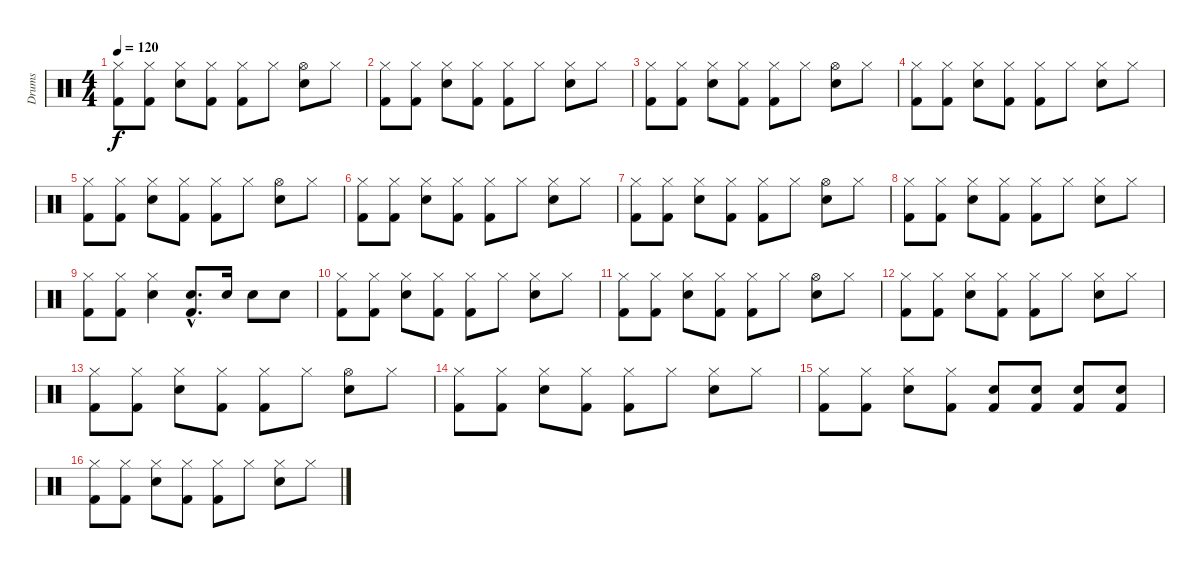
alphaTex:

\track ("Drums " "Drums ") {instrument percussion}
\staff {score}
\articulation defaults
\ts (4 4)
\tempo 120
\clef neutral
\ks c
("Kick (hit) 2" "Hi-Hat (closed)").8{dy f} ("Kick (hit) 2" "Hi-Hat (closed)").8 ("Electric Snare (hit)" "Hi-Hat (closed)").8 ("Kick (hit) 2" "Hi-Hat (closed)").8 ("Kick (hit) 2" "Hi-Hat (closed)").8 "Hi-Hat (closed)".8 ("Electric Snare (hit)" "Hi-Hat (open)").8 "Hi-Hat (closed)".8 |
("Kick (hit) 2" "Hi-Hat (closed)").8 ("Kick (hit) 2" "Hi-Hat (closed)").8 ("Electric Snare (hit)" "Hi-Hat (closed)").8 ("Kick (hit) 2" "Hi-Hat (closed)").8 ("Kick (hit) 2" "Hi-Hat (closed)").8 "Hi-Hat (closed)".8 ("Electric Snare (hit)" "Hi-Hat (closed)").8 "Hi-Hat (closed)".8 |
("Kick (hit) 2" "Hi-Hat (closed)").8 ("Kick (hit) 2" "Hi-Hat (closed)").8 ("Electric Snare (hit)" "Hi-Hat (closed)").8 ("Kick (hit) 2" "Hi-Hat (closed)").8 ("Kick (hit) 2" "Hi-Hat (closed)").8 "Hi-Hat (closed)".8 ("Electric Snare (hit)" "Hi-Hat (open)").8 "Hi-Hat (closed)".8 |
("Kick (hit) 2" "Hi-Hat (closed)").8 ("Kick (hit) 2" "Hi-Hat (closed)").8 ("Electric Snare (hit)" "Hi-Hat (closed)").8 ("Kick (hit) 2" "Hi-Hat (closed)").8 ("Kick (hit) 2" "Hi-Hat (closed)").8 "Hi-Hat (closed)".8 ("Electric Snare (hit)" "Hi-Hat (closed)").8 "Hi-Hat (closed)".8 |
("Kick (hit) 2" "Hi-Hat (closed)").8 ("Kick (hit) 2" "Hi-Hat (closed)").8 ("Electric Snare (hit)" "Hi-Hat (closed)").8 ("Kick (hit) 2" "Hi-Hat (closed)").8 ("Kick (hit) 2" "Hi-Hat (closed)").8 "Hi-Hat (closed)".8 ("Electric Snare (hit)" "Hi-Hat (open)").8 "Hi-Hat (closed)".8 |
("Kick (hit) 2" "Hi-Hat (closed)").8 ("Kick (hit) 2" "Hi-Hat (closed)").8 ("Electric Snare (hit)" "Hi-Hat (closed)").8 ("Kick (hit) 2" "Hi-Hat (closed)").8 ("Kick (hit) 2" "Hi-Hat (closed)").8 "Hi-Hat (closed)".8 ("Electric Snare (hit)" "Hi-Hat (closed)").8 "Hi-Hat (closed)".8 |
("Kick (hit) 2" "Hi-Hat (closed)").8 ("Kick (hit) 2" "Hi-Hat (closed)").8 ("Electric Snare (hit)" "Hi-Hat (closed)").8 ("Kick (hit) 2" "Hi-Hat (closed)").8 ("Kick (hit) 2" "Hi-Hat (closed)").8 "Hi-Hat (closed)".8 ("Electric Snare (hit)" "Hi-Hat (open)").8 "Hi-Hat (closed)".8 |
("Kick (hit) 2" "Hi-Hat (closed)").8 ("Kick (hit) 2" "Hi-Hat (closed)").8 ("Electric Snare (hit)" "Hi-Hat (closed)").8 ("Kick (hit) 2" "Hi-Hat (closed)").8 ("Kick (hit) 2" "Hi-Hat (closed)").8 "Hi-Hat (closed)".8 ("Electric Snare (hit)" "Hi-Hat (closed)").8 "Hi-Hat (closed)".8 |
("Hi-Hat (closed)" "Kick (hit) 2").8 ("Kick (hit) 2" "Hi-Hat (closed)").8 ("Electric Snare (hit)" "Hi-Hat (closed)").4 ("Kick (hit) 2"{hac} "Electric Snare (hit)"{hac}).8{d} "Electric Snare (hit)".16 "Electric Snare (hit)".8 "Electric Snare (hit)".8 |
("Kick (hit) 2" "Hi-Hat (closed)").8 ("Kick (hit) 2" "Hi-Hat (closed)").8 ("Electric Snare (hit)" "Hi-Hat (closed)").8 ("Kick (hit) 2" "Hi-Hat (closed)").8 ("Kick (hit) 2" "Hi-Hat (closed)").8 "Hi-Hat (closed)".8 ("Electric Snare (hit)" "Hi-Hat (closed)").8 "Hi-Hat (closed)".8 |
("Kick (hit) 2" "Hi-Hat (closed)").8 ("Kick (hit) 2" "Hi-Hat (closed)").8 ("Electric Snare (hit)" "Hi-Hat (closed)").8 ("Kick (hit) 2" "Hi-Hat (closed)").8 ("Kick (hit) 2" "Hi-Hat (closed)").8 "Hi-Hat (closed)".8 ("Electric Snare (hit)" "Hi-Hat (open)").8 "Hi-Hat (closed)".8 |
("Kick (hit) 2" "Hi-Hat (closed)").8 ("Kick (hit) 2" "Hi-Hat (closed)").8 ("Electric Snare (hit)" "Hi-Hat (closed)").8 ("Kick (hit) 2" "Hi-Hat (closed)").8 ("Kick (hit) 2" "Hi-Hat (closed)").8 "Hi-Hat (closed)".8 ("Electric Snare (hit)" "Hi-Hat (closed)").8 "Hi-Hat (closed)".8 |
("Kick (hit) 2" "Hi-Hat (closed)").8 ("Kick (hit) 2" "Hi-Hat (closed)").8 ("Electric Snare (hit)" "Hi-Hat (closed)").8 ("Kick (hit) 2" "Hi-Hat (closed)").8 ("Kick (hit) 2" "Hi-Hat (closed)").8 "Hi-Hat (closed)".8 ("Electric Snare (hit)" "Hi-Hat (open)").8 "Hi-Hat (closed)".8 |
("Kick (hit) 2" "Hi-Hat (closed)").8 ("Kick (hit) 2" "Hi-Hat (closed)").8 ("Electric Snare (hit)" "Hi-Hat (closed)").8 ("Kick (hit) 2" "Hi-Hat (closed)").8 ("Kick (hit) 2" "Hi-Hat (closed)").8 "Hi-Hat (closed)".8 ("Electric Snare (hit)" "Hi-Hat (closed)").8 "Hi-Hat (closed)".8 |
("Hi-Hat (closed)" "Kick (hit) 2").8 ("Hi-Hat (closed)" "Kick (hit) 2").8 ("Hi-Hat (closed)" "Electric Snare (hit)").8 ("Hi-Hat (closed)" "Kick (hit) 2").8 ("Electric Snare (hit)" "Kick (hit) 2").8 ("Electric Snare (hit)" "Kick (hit) 2").8 ("Electric Snare (hit)" "Kick (hit) 2").8 ("Electric Snare (hit)" "Kick (hit) 2").8 |
("Kick (hit) 2" "Hi-Hat (closed)").8 ("Kick (hit) 2" "Hi-Hat (closed)").8 ("Electric Snare (hit)" "Hi-Hat (closed)").8 ("Kick (hit) 2" "Hi-Hat (closed)").8 ("Kick (hit) 2" "Hi-Hat (closed)").8 "Hi-Hat (closed)".8 ("Electric Snare (hit)" "Hi-Hat (closed)").8 "Hi-Hat (closed)".8
